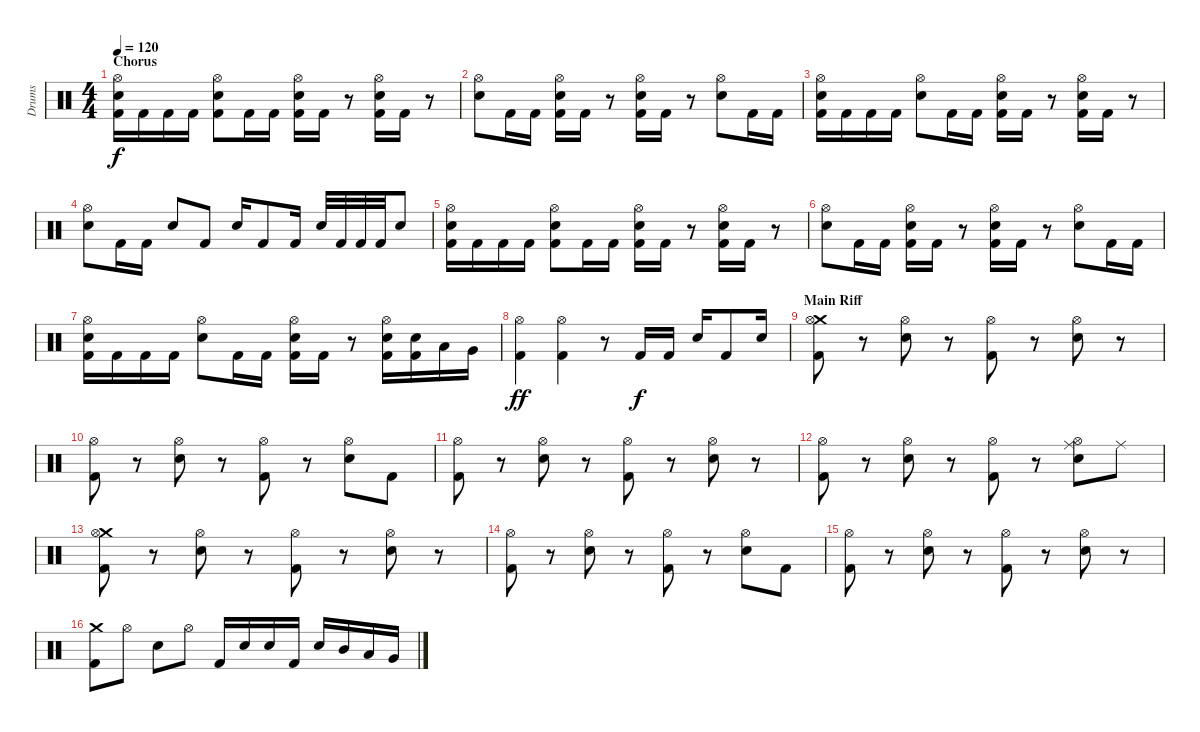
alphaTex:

\track ("Drums" "Drums") {instrument percussion}
\staff {score}
\articulation defaults
\ts (4 4)
\section ("" "Chorus")
\tempo 120
\clef neutral
\ks c
("Hi-Hat (open)" "Electric Snare (hit)" "Kick (hit) 2").16{dy f} "Kick (hit) 2".16 "Kick (hit) 2".16 "Kick (hit) 2".16 ("Hi-Hat (open)" "Electric Snare (hit)" "Kick (hit) 2").8 "Kick (hit) 2".16 "Kick (hit) 2".16 ("Hi-Hat (open)" "Electric Snare (hit)" "Kick (hit) 2").16 "Kick (hit) 2".16 r.8 ("Hi-Hat (open)" "Electric Snare (hit)" "Kick (hit) 2").16 "Kick (hit) 2".16 r.8 |
("Hi-Hat (open)" "Electric Snare (hit)").8 "Kick (hit) 2".16 "Kick (hit) 2".16 ("Hi-Hat (open)" "Electric Snare (hit)" "Kick (hit) 2").16 "Kick (hit) 2".16 r.8 ("Hi-Hat (open)" "Electric Snare (hit)" "Kick (hit) 2").16 "Kick (hit) 2".16 r.8 ("Hi-Hat (open)" "Electric Snare (hit)").8 "Kick (hit) 2".16 "Kick (hit) 2".16 |
("Hi-Hat (open)" "Electric Snare (hit)" "Kick (hit) 2").16 "Kick (hit) 2".16 "Kick (hit) 2".16 "Kick (hit) 2".16 ("Hi-Hat (open)" "Electric Snare (hit)").8 "Kick (hit) 2".16 "Kick (hit) 2".16 ("Hi-Hat (open)" "Electric Snare (hit)" "Kick (hit) 2").16 "Kick (hit) 2".16 r.8 ("Hi-Hat (open)" "Electric Snare (hit)" "Kick (hit) 2").16 "Kick (hit) 2".16 r.8 |
("Hi-Hat (open)" "Electric Snare (hit)").8 "Kick (hit) 2".16 "Kick (hit) 2".16 "Electric Snare (hit)".8 "Kick (hit) 2".8 "Electric Snare (hit)".16 "Kick (hit) 2".8 "Kick (hit) 2".16 "Electric Snare (hit)".32 "Kick (hit) 2".32 "Kick (hit) 2".32 "Kick (hit) 2".32 "Electric Snare (hit)".8 |
("Hi-Hat (open)" "Electric Snare (hit)" "Kick (hit) 2").16 "Kick (hit) 2".16 "Kick (hit) 2".16 "Kick (hit) 2".16 ("Hi-Hat (open)" "Electric Snare (hit)" "Kick (hit) 2").8 "Kick (hit) 2".16 "Kick (hit) 2".16 ("Hi-Hat (open)" "Electric Snare (hit)" "Kick (hit) 2").16 "Kick (hit) 2".16 r.8 ("Hi-Hat (open)" "Electric Snare (hit)" "Kick (hit) 2").16 "Kick (hit) 2".16 r.8 |
("Hi-Hat (open)" "Electric Snare (hit)").8 "Kick (hit) 2".16 "Kick (hit) 2".16 ("Hi-Hat (open)" "Electric Snare (hit)" "Kick (hit) 2").16 "Kick (hit) 2".16 r.8 ("Hi-Hat (open)" "Electric Snare (hit)" "Kick (hit) 2").16 "Kick (hit) 2".16 r.8 ("Hi-Hat (open)" "Electric Snare (hit)").8 "Kick (hit) 2".16 "Kick (hit) 2".16 |
("Hi-Hat (open)" "Electric Snare (hit)" "Kick (hit) 2").16 "Kick (hit) 2".16 "Kick (hit) 2".16 "Kick (hit) 2".16 ("Hi-Hat (open)" "Electric Snare (hit)").8 "Kick (hit) 2".16 "Kick (hit) 2".16 ("Hi-Hat (open)" "Electric Snare (hit)" "Kick (hit) 2").16 "Kick (hit) 2".16 r.8 ("Hi-Hat (open)" "Electric Snare (hit)" "Kick (hit) 2").16 ("Electric Snare (hit)" "Kick (hit) 2").16 "Low Tom (hit)".16 "Very Low Tom (hit)".16 |
("Hi-Hat (open)" "Kick (hit) 2").4{dy ff} ("Hi-Hat (open)" "Kick (hit) 2").4 r.8 "Kick (hit) 2".16{dy f} "Kick (hit) 2".16 "Electric Snare (hit)".16 "Kick (hit) 2".8 "Electric Snare (hit)".16 |
\section ("" "Main Riff")
("Crash medium (hit)" "Hi-Hat (open)" "Kick (hit) 2").8 r.8 ("Hi-Hat (open)" "Electric Snare (hit)").8 r.8 ("Hi-Hat (open)" "Kick (hit) 2").8 r.8 ("Hi-Hat (open)" "Electric Snare (hit)").8 r.8 |
("Hi-Hat (open)" "Kick (hit) 2").8 r.8 ("Hi-Hat (open)" "Electric Snare (hit)").8 r.8 ("Hi-Hat (open)" "Kick (hit) 2").8 r.8 ("Hi-Hat (open)" "Electric Snare (hit)").8 "Kick (hit) 2".8 |
("Hi-Hat (open)" "Kick (hit) 2").8 r.8 ("Hi-Hat (open)" "Electric Snare (hit)").8 r.8 ("Hi-Hat (open)" "Kick (hit) 2").8 r.8 ("Hi-Hat (open)" "Electric Snare (hit)").8 r.8 |
("Hi-Hat (open)" "Kick (hit) 2").8 r.8 ("Hi-Hat (open)" "Electric Snare (hit)").8 r.8 ("Hi-Hat (open)" "Kick (hit) 2").8 r.8 ("Ride (middle)" "Hi-Hat (open)" "Electric Snare (hit)").8 "Ride (middle)".8 |
("Crash medium (hit)" "Hi-Hat (open)" "Kick (hit) 2").8 r.8 ("Hi-Hat (open)" "Electric Snare (hit)").8 r.8 ("Hi-Hat (open)" "Kick (hit) 2").8 r.8 ("Hi-Hat (open)" "Electric Snare (hit)").8 r.8 |
("Hi-Hat (open)" "Kick (hit) 2").8 r.8 ("Hi-Hat (open)" "Electric Snare (hit)").8 r.8 ("Hi-Hat (open)" "Kick (hit) 2").8 r.8 ("Hi-Hat (open)" "Electric Snare (hit)").8 "Kick (hit) 2".8 |
("Hi-Hat (open)" "Kick (hit) 2").8 r.8 ("Hi-Hat (open)" "Electric Snare (hit)").8 r.8 ("Hi-Hat (open)" "Kick (hit) 2").8 r.8 ("Hi-Hat (open)" "Electric Snare (hit)").8 r.8 |
("Crash medium (hit)" "Kick (hit) 2").8 "Hi-Hat (open)".8 "Electric Snare (hit)".8 "Hi-Hat (open)".8 "Kick (hit) 2".16 "Electric Snare (hit)".16 "Electric Snare (hit)".16 "Kick (hit) 2".16 "Electric Snare (hit)".16 "Mid Tom (hit)".16 "Low Tom (hit)".16 "Very Low Tom (hit)".16
